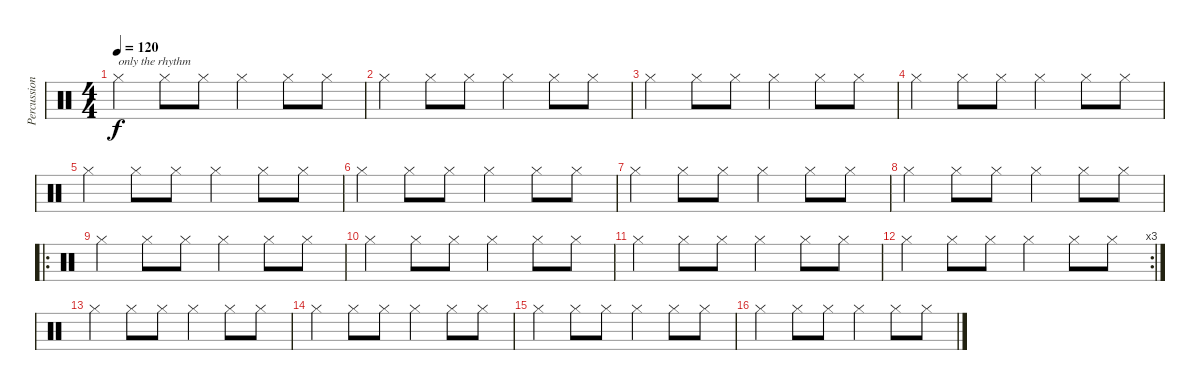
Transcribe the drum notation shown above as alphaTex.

\track ("Percussion" "Percussion") {instrument percussion}
\staff {score}
\articulation defaults
\ts (4 4)
\tempo 120
\clef neutral
\ks c "Hi-Hat (closed)".4{txt "only the rhythm" dy f} "Hi-Hat (closed)".8 "Hi-Hat (closed)".8 "Hi-Hat (closed)".4 "Hi-Hat (closed)".8 "Hi-Hat (closed)".8
|
"Hi-Hat (closed)".4 "Hi-Hat (closed)".8 "Hi-Hat (closed)".8 "Hi-Hat (closed)".4 "Hi-Hat (closed)".8 "Hi-Hat (closed)".8 |
"Hi-Hat (closed)".4 "Hi-Hat (closed)".8 "Hi-Hat (closed)".8 "Hi-Hat (closed)".4 "Hi-Hat (closed)".8 "Hi-Hat (closed)".8 |
"Hi-Hat (closed)".4 "Hi-Hat (closed)".8 "Hi-Hat (closed)".8 "Hi-Hat (closed)".4 "Hi-Hat (closed)".8 "Hi-Hat (closed)".8 |
"Hi-Hat (closed)".4 "Hi-Hat (closed)".8 "Hi-Hat (closed)".8 "Hi-Hat (closed)".4 "Hi-Hat (closed)".8 "Hi-Hat (closed)".8 |
"Hi-Hat (closed)".4 "Hi-Hat (closed)".8 "Hi-Hat (closed)".8 "Hi-Hat (closed)".4 "Hi-Hat (closed)".8 "Hi-Hat (closed)".8 |
"Hi-Hat (closed)".4 "Hi-Hat (closed)".8 "Hi-Hat (closed)".8 "Hi-Hat (closed)".4 "Hi-Hat (closed)".8 "Hi-Hat (closed)".8 |
"Hi-Hat (closed)".4 "Hi-Hat (closed)".8 "Hi-Hat (closed)".8 "Hi-Hat (closed)".4 "Hi-Hat (closed)".8 "Hi-Hat (closed)".8 |
\ro "Hi-Hat (closed)".4 "Hi-Hat (closed)".8 "Hi-Hat (closed)".8 "Hi-Hat (closed)".4 "Hi-Hat (closed)".8 "Hi-Hat (closed)".8
|
"Hi-Hat (closed)".4 "Hi-Hat (closed)".8 "Hi-Hat (closed)".8 "Hi-Hat (closed)".4 "Hi-Hat (closed)".8 "Hi-Hat (closed)".8 |
"Hi-Hat (closed)".4 "Hi-Hat (closed)".8 "Hi-Hat (closed)".8 "Hi-Hat (closed)".4 "Hi-Hat (closed)".8 "Hi-Hat (closed)".8 |
\rc 3 "Hi-Hat (closed)".4 "Hi-Hat (closed)".8 "Hi-Hat (closed)".8 "Hi-Hat (closed)".4 "Hi-Hat (closed)".8 "Hi-Hat (closed)".8
|
"Hi-Hat (closed)".4 "Hi-Hat (closed)".8 "Hi-Hat (closed)".8 "Hi-Hat (closed)".4 "Hi-Hat (closed)".8 "Hi-Hat (closed)".8 |
"Hi-Hat (closed)".4 "Hi-Hat (closed)".8 "Hi-Hat (closed)".8 "Hi-Hat (closed)".4 "Hi-Hat (closed)".8 "Hi-Hat (closed)".8 |
"Hi-Hat (closed)".4 "Hi-Hat (closed)".8 "Hi-Hat (closed)".8 "Hi-Hat (closed)".4 "Hi-Hat (closed)".8 "Hi-Hat (closed)".8 |
"Hi-Hat (closed)".4 "Hi-Hat (closed)".8 "Hi-Hat (closed)".8 "Hi-Hat (closed)".4 "Hi-Hat (closed)".8 "Hi-Hat (closed)".8
